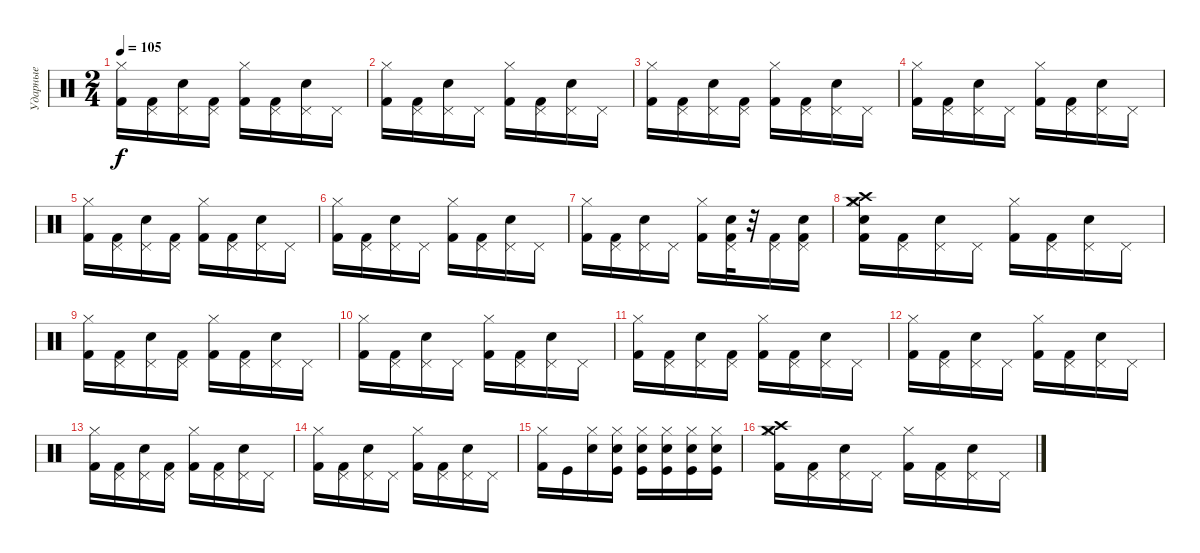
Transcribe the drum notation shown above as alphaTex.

\track ("Ударные" "Ударные") {instrument percussion}
\staff {score}
\articulation defaults
\ts (2 4)
\tempo 105
\clef neutral
\ks c
("Hi-Hat (closed)" "Kick (hit) 2").16{dy f} ("Pedal Hi-Hat (hit)" "Kick (hit) 2").16 ("Pedal Hi-Hat (hit)" "Snare (hit) 2").16 ("Pedal Hi-Hat (hit)" "Kick (hit) 2").16 ("Hi-Hat (closed)" "Kick (hit) 2").16 ("Pedal Hi-Hat (hit)" "Kick (hit) 2").16 ("Pedal Hi-Hat (hit)" "Snare (hit) 2").16 "Pedal Hi-Hat (hit)".16 |
("Hi-Hat (closed)" "Kick (hit) 2").16 ("Pedal Hi-Hat (hit)" "Kick (hit) 2").16 ("Pedal Hi-Hat (hit)" "Snare (hit) 2").16 "Pedal Hi-Hat (hit)".16 ("Hi-Hat (closed)" "Kick (hit) 2").16 ("Pedal Hi-Hat (hit)" "Kick (hit) 2").16 ("Pedal Hi-Hat (hit)" "Snare (hit) 2").16 "Pedal Hi-Hat (hit)".16 |
("Hi-Hat (closed)" "Kick (hit) 2").16 ("Pedal Hi-Hat (hit)" "Kick (hit) 2").16 ("Pedal Hi-Hat (hit)" "Snare (hit) 2").16 ("Pedal Hi-Hat (hit)" "Kick (hit) 2").16 ("Hi-Hat (closed)" "Kick (hit) 2").16 ("Pedal Hi-Hat (hit)" "Kick (hit) 2").16 ("Pedal Hi-Hat (hit)" "Snare (hit) 2").16 "Pedal Hi-Hat (hit)".16 |
("Hi-Hat (closed)" "Kick (hit) 2").16 ("Pedal Hi-Hat (hit)" "Kick (hit) 2").16 ("Pedal Hi-Hat (hit)" "Snare (hit) 2").16 "Pedal Hi-Hat (hit)".16 ("Hi-Hat (closed)" "Kick (hit) 2").16 ("Pedal Hi-Hat (hit)" "Kick (hit) 2").16 ("Pedal Hi-Hat (hit)" "Snare (hit) 2").16 "Pedal Hi-Hat (hit)".16 |
("Hi-Hat (closed)" "Kick (hit) 2").16 ("Pedal Hi-Hat (hit)" "Kick (hit) 2").16 ("Pedal Hi-Hat (hit)" "Snare (hit) 2").16 ("Pedal Hi-Hat (hit)" "Kick (hit) 2").16 ("Hi-Hat (closed)" "Kick (hit) 2").16 ("Pedal Hi-Hat (hit)" "Kick (hit) 2").16 ("Pedal Hi-Hat (hit)" "Snare (hit) 2").16 "Pedal Hi-Hat (hit)".16 |
("Hi-Hat (closed)" "Kick (hit) 2").16 ("Pedal Hi-Hat (hit)" "Kick (hit) 2").16 ("Pedal Hi-Hat (hit)" "Snare (hit) 2").16 "Pedal Hi-Hat (hit)".16 ("Hi-Hat (closed)" "Kick (hit) 2").16 ("Pedal Hi-Hat (hit)" "Kick (hit) 2").16 ("Pedal Hi-Hat (hit)" "Snare (hit) 2").16 "Pedal Hi-Hat (hit)".16 |
("Hi-Hat (closed)" "Kick (hit) 2").16 ("Pedal Hi-Hat (hit)" "Kick (hit) 2").16 ("Pedal Hi-Hat (hit)" "Snare (hit) 2").16 "Pedal Hi-Hat (hit)".16 ("Hi-Hat (closed)" "Kick (hit) 2").16 ("Pedal Hi-Hat (hit)" "Snare (hit) 2" "Kick (hit) 2").32 r.32 ("Pedal Hi-Hat (hit)" "Kick (hit) 2").16 ("Pedal Hi-Hat (hit)" "Snare (hit) 2" "Kick (hit) 2").16 |
("Hi-Hat (closed)" "Crash medium (hit)" "Crash high (hit)" "Electric Snare (hit)" "Kick (hit) 2").16 ("Pedal Hi-Hat (hit)" "Kick (hit) 2").16 ("Pedal Hi-Hat (hit)" "Snare (hit) 2").16 "Pedal Hi-Hat (hit)".16 ("Hi-Hat (closed)" "Kick (hit) 2").16 ("Pedal Hi-Hat (hit)" "Kick (hit) 2").16 ("Pedal Hi-Hat (hit)" "Snare (hit) 2").16 "Pedal Hi-Hat (hit)".16 |
("Hi-Hat (closed)" "Kick (hit) 2").16 ("Pedal Hi-Hat (hit)" "Kick (hit) 2").16 ("Pedal Hi-Hat (hit)" "Snare (hit) 2").16 ("Pedal Hi-Hat (hit)" "Kick (hit) 2").16 ("Hi-Hat (closed)" "Kick (hit) 2").16 ("Pedal Hi-Hat (hit)" "Kick (hit) 2").16 ("Pedal Hi-Hat (hit)" "Snare (hit) 2").16 "Pedal Hi-Hat (hit)".16 |
("Hi-Hat (closed)" "Kick (hit) 2").16 ("Pedal Hi-Hat (hit)" "Kick (hit) 2").16 ("Pedal Hi-Hat (hit)" "Snare (hit) 2").16 "Pedal Hi-Hat (hit)".16 ("Hi-Hat (closed)" "Kick (hit) 2").16 ("Pedal Hi-Hat (hit)" "Kick (hit) 2").16 ("Pedal Hi-Hat (hit)" "Snare (hit) 2").16 "Pedal Hi-Hat (hit)".16 |
("Hi-Hat (closed)" "Kick (hit) 2").16 ("Pedal Hi-Hat (hit)" "Kick (hit) 2").16 ("Pedal Hi-Hat (hit)" "Snare (hit) 2").16 ("Pedal Hi-Hat (hit)" "Kick (hit) 2").16 ("Hi-Hat (closed)" "Kick (hit) 2").16 ("Pedal Hi-Hat (hit)" "Kick (hit) 2").16 ("Pedal Hi-Hat (hit)" "Snare (hit) 2").16 "Pedal Hi-Hat (hit)".16 |
("Hi-Hat (closed)" "Kick (hit) 2").16 ("Pedal Hi-Hat (hit)" "Kick (hit) 2").16 ("Pedal Hi-Hat (hit)" "Snare (hit) 2").16 "Pedal Hi-Hat (hit)".16 ("Hi-Hat (closed)" "Kick (hit) 2").16 ("Pedal Hi-Hat (hit)" "Kick (hit) 2").16 ("Pedal Hi-Hat (hit)" "Snare (hit) 2").16 "Pedal Hi-Hat (hit)".16 |
("Hi-Hat (closed)" "Kick (hit) 2").16 ("Pedal Hi-Hat (hit)" "Kick (hit) 2").16 ("Pedal Hi-Hat (hit)" "Snare (hit) 2").16 ("Pedal Hi-Hat (hit)" "Kick (hit) 2").16 ("Hi-Hat (closed)" "Kick (hit) 2").16 ("Pedal Hi-Hat (hit)" "Kick (hit) 2").16 ("Pedal Hi-Hat (hit)" "Snare (hit) 2").16 "Pedal Hi-Hat (hit)".16 |
("Hi-Hat (closed)" "Kick (hit) 2").16 ("Pedal Hi-Hat (hit)" "Kick (hit) 2").16 ("Pedal Hi-Hat (hit)" "Snare (hit) 2").16 "Pedal Hi-Hat (hit)".16 ("Hi-Hat (closed)" "Kick (hit) 2").16 ("Pedal Hi-Hat (hit)" "Kick (hit) 2").16 ("Pedal Hi-Hat (hit)" "Snare (hit) 2").16 "Pedal Hi-Hat (hit)".16 |
("Hi-Hat (closed)" "Kick (hit) 2").16 "Kick (hit)".16 ("Hi-Hat (closed)" "Snare (hit) 2").16 ("Hi-Hat (closed)" "Snare (hit) 2" "Kick (hit)").16 ("Hi-Hat (closed)" "Snare (hit) 2" "Kick (hit)").16 ("Hi-Hat (closed)" "Snare (hit) 2" "Kick (hit)").16 ("Hi-Hat (closed)" "Snare (hit) 2" "Kick (hit)").16 ("Hi-Hat (closed)" "Snare (hit) 2" "Kick (hit)").16 |
("Hi-Hat (closed)" "Crash medium (hit)" "Crash high (hit)" "Kick (hit) 2").16 ("Pedal Hi-Hat (hit)" "Kick (hit) 2").16 ("Pedal Hi-Hat (hit)" "Snare (hit) 2").16 "Pedal Hi-Hat (hit)".16 ("Hi-Hat (closed)" "Kick (hit) 2").16 ("Pedal Hi-Hat (hit)" "Kick (hit) 2").16 ("Pedal Hi-Hat (hit)" "Snare (hit) 2").16 "Pedal Hi-Hat (hit)".16
